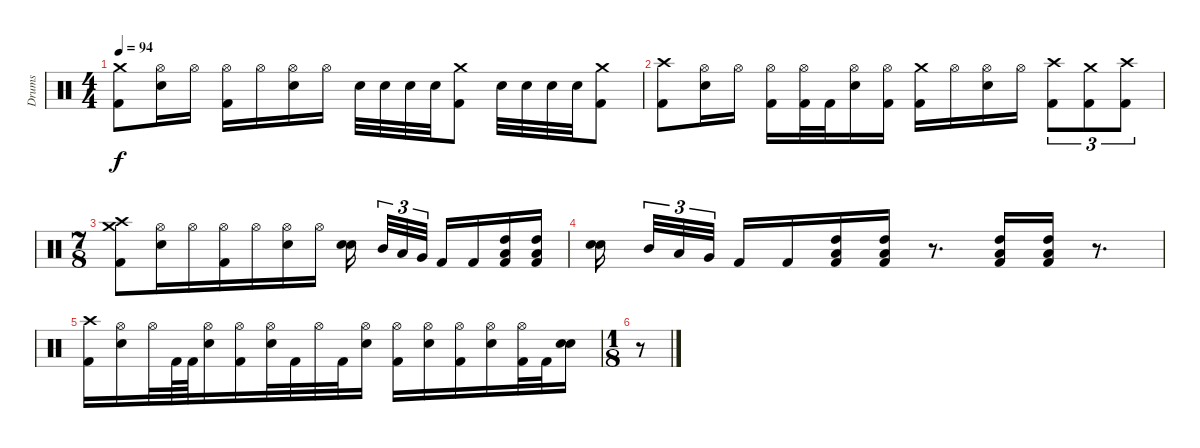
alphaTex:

\track ("Drums" "Drums") {instrument percussion}
\staff {score}
\articulation defaults
\ts (4 4)
\tempo 94
\clef neutral
\ks c
("Crash medium (hit)" "Kick (hit) 2").8{dy f} ("Hi-Hat (open)" "Electric Snare (hit)").16 "Hi-Hat (open)".16 ("Hi-Hat (open)" "Kick (hit) 2").16 "Hi-Hat (open)".16 ("Hi-Hat (open)" "Electric Snare (hit)").16 "Hi-Hat (open)".16 "Electric Snare (hit)".32 "Electric Snare (hit)".32 "Electric Snare (hit)".32 "Electric Snare (hit)".32 ("Crash medium (hit)" "Kick (hit) 2").8 "Electric Snare (hit)".32 "Electric Snare (hit)".32 "Electric Snare (hit)".32 "Electric Snare (hit)".32 ("Crash medium (hit)" "Kick (hit) 2").8 |
("Crash high (hit)" "Kick (hit) 2").8 ("Hi-Hat (open)" "Electric Snare (hit)").16 "Hi-Hat (open)".16 ("Hi-Hat (open)" "Kick (hit) 2").16 ("Hi-Hat (open)" "Kick (hit) 2").32 "Kick (hit) 2".32 ("Hi-Hat (open)" "Electric Snare (hit)").16 ("Hi-Hat (open)" "Kick (hit) 2").16 ("Crash medium (hit)" "Kick (hit) 2").16 "Hi-Hat (open)".16 ("Hi-Hat (open)" "Electric Snare (hit)").16 "Hi-Hat (open)".16 ("Crash high (hit)" "Kick (hit) 2").8{tu (3 2)} ("Crash medium (hit)" "Kick (hit) 2").8{tu (3 2)} ("Crash high (hit)" "Kick (hit) 2").8{tu (3 2)} |
\ts (7 8)
("Crash high (hit)" "Crash medium (hit)" "Kick (hit) 2").8 ("Hi-Hat (open)" "Electric Snare (hit)").16 "Hi-Hat (open)".16 ("Hi-Hat (open)" "Kick (hit) 2").16 "Hi-Hat (open)".16 ("Hi-Hat (open)" "Electric Snare (hit)").16 "Hi-Hat (open)".16 ("Electric Snare (hit)" "Electric Snare (hit)").16{bd 60 beam splitsecondary} "Mid Tom (hit)".32{tu (3 2)} "Low Tom (hit)".32{tu (3 2)} "Very Low Tom (hit)".32{tu (3 2)} "Kick (hit) 2".16 "Kick (hit) 2".16 ("High Tom (hit)" "Low Tom (hit)" "Kick (hit) 2").16 ("High Tom (hit)" "Low Tom (hit)" "Kick (hit) 2").16 |
("Electric Snare (hit)" "Electric Snare (hit)").16{bd 60 beam splitsecondary} "Mid Tom (hit)".32{tu (3 2)} "Low Tom (hit)".32{tu (3 2)} "Very Low Tom (hit)".32{tu (3 2)} "Kick (hit) 2".16 "Kick (hit) 2".16 ("High Tom (hit)" "Low Tom (hit)" "Kick (hit) 2").16 ("High Tom (hit)" "Low Tom (hit)" "Kick (hit) 2").16 r.8{d} ("High Tom (hit)" "Low Tom (hit)" "Kick (hit) 2").16 ("High Tom (hit)" "Low Tom (hit)" "Kick (hit) 2").16 r.8{d} |
("Crash high (hit)" "Kick (hit) 2").16 ("Hi-Hat (open)" "Electric Snare (hit)").16 "Hi-Hat (open)".32 "Kick (hit) 2".64 "Kick (hit) 2".64 ("Hi-Hat (open)" "Electric Snare (hit)").16 ("Hi-Hat (open)" "Kick (hit) 2").16 ("Hi-Hat (open)" "Electric Snare (hit)").32 "Kick (hit) 2".32 "Hi-Hat (open)".32 "Kick (hit) 2".32 ("Hi-Hat (open)" "Electric Snare (hit)").16 ("Hi-Hat (open)" "Kick (hit) 2").16 ("Hi-Hat (open)" "Electric Snare (hit)").16 ("Hi-Hat (open)" "Kick (hit) 2").16 ("Hi-Hat (open)" "Electric Snare (hit)").16 ("Hi-Hat (open)" "Kick (hit) 2").32 "Kick (hit) 2".32 ("Electric Snare (hit)" "Electric Snare (hit)").16{bd 120} |
\ts (1 8)
r.8
